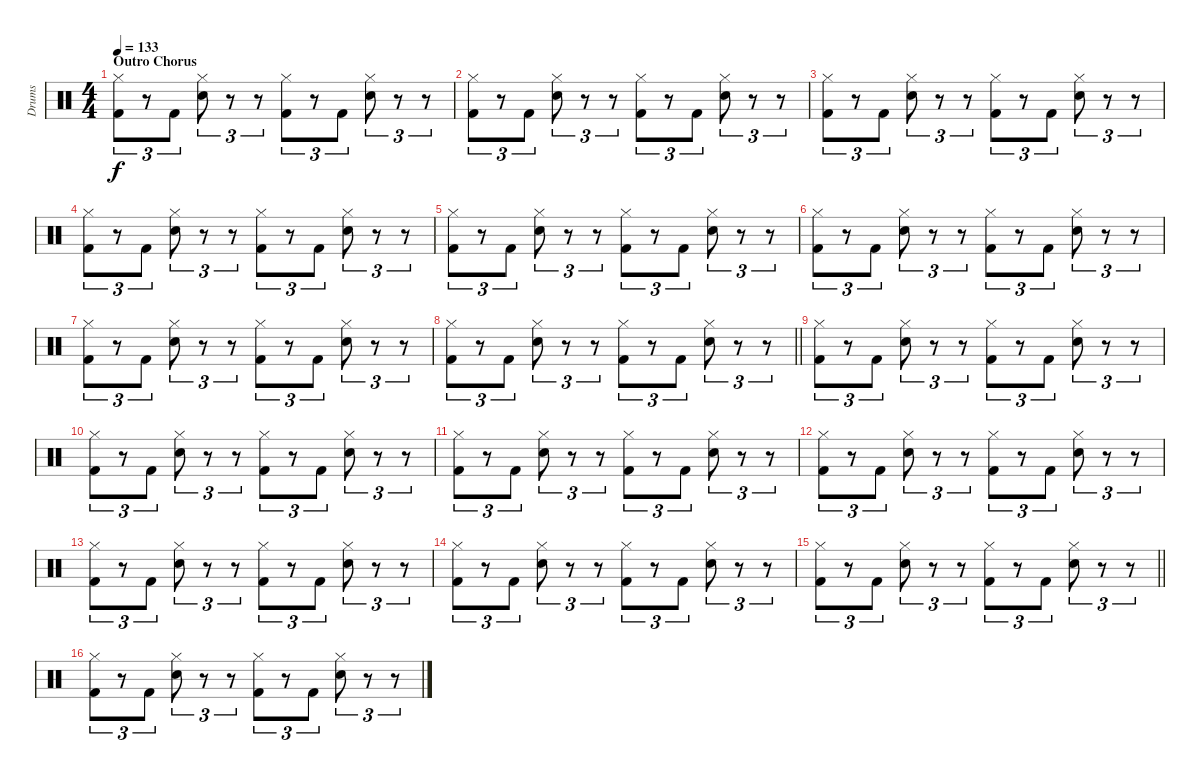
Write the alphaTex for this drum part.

\track ("Drums" "Drums") {instrument percussion}
\staff {score}
\articulation defaults
\ts (4 4)
\section ("" "Outro Chorus")
\tempo 133
\clef neutral
\ks c
("Hi-Hat (closed)" "Kick (hit) 2").8{tu (3 2) dy f} r.8{tu (3 2)} "Kick (hit) 2".8{tu (3 2)} ("Hi-Hat (closed)" "Snare (hit) 2").8{tu (3 2)} r.8{tu (3 2)} r.8{tu (3 2)} ("Hi-Hat (closed)" "Kick (hit) 2").8{tu (3 2)} r.8{tu (3 2)} "Kick (hit) 2".8{tu (3 2)} ("Hi-Hat (closed)" "Snare (hit) 2").8{tu (3 2)} r.8{tu (3 2)} r.8{tu (3 2)} |
("Hi-Hat (closed)" "Kick (hit) 2").8{tu (3 2)} r.8{tu (3 2)} "Kick (hit) 2".8{tu (3 2)} ("Hi-Hat (closed)" "Snare (hit) 2").8{tu (3 2)} r.8{tu (3 2)} r.8{tu (3 2)} ("Hi-Hat (closed)" "Kick (hit) 2").8{tu (3 2)} r.8{tu (3 2)} "Kick (hit) 2".8{tu (3 2)} ("Hi-Hat (closed)" "Snare (hit) 2").8{tu (3 2)} r.8{tu (3 2)} r.8{tu (3 2)} |
("Hi-Hat (closed)" "Kick (hit) 2").8{tu (3 2)} r.8{tu (3 2)} "Kick (hit) 2".8{tu (3 2)} ("Hi-Hat (closed)" "Snare (hit) 2").8{tu (3 2)} r.8{tu (3 2)} r.8{tu (3 2)} ("Hi-Hat (closed)" "Kick (hit) 2").8{tu (3 2)} r.8{tu (3 2)} "Kick (hit) 2".8{tu (3 2)} ("Hi-Hat (closed)" "Snare (hit) 2").8{tu (3 2)} r.8{tu (3 2)} r.8{tu (3 2)} |
("Hi-Hat (closed)" "Kick (hit) 2").8{tu (3 2)} r.8{tu (3 2)} "Kick (hit) 2".8{tu (3 2)} ("Hi-Hat (closed)" "Snare (hit) 2").8{tu (3 2)} r.8{tu (3 2)} r.8{tu (3 2)} ("Hi-Hat (closed)" "Kick (hit) 2").8{tu (3 2)} r.8{tu (3 2)} "Kick (hit) 2".8{tu (3 2)} ("Hi-Hat (closed)" "Snare (hit) 2").8{tu (3 2)} r.8{tu (3 2)} r.8{tu (3 2)} |
("Hi-Hat (closed)" "Kick (hit) 2").8{tu (3 2)} r.8{tu (3 2)} "Kick (hit) 2".8{tu (3 2)} ("Hi-Hat (closed)" "Snare (hit) 2").8{tu (3 2)} r.8{tu (3 2)} r.8{tu (3 2)} ("Hi-Hat (closed)" "Kick (hit) 2").8{tu (3 2)} r.8{tu (3 2)} "Kick (hit) 2".8{tu (3 2)} ("Hi-Hat (closed)" "Snare (hit) 2").8{tu (3 2)} r.8{tu (3 2)} r.8{tu (3 2)} |
("Hi-Hat (closed)" "Kick (hit) 2").8{tu (3 2)} r.8{tu (3 2)} "Kick (hit) 2".8{tu (3 2)} ("Hi-Hat (closed)" "Snare (hit) 2").8{tu (3 2)} r.8{tu (3 2)} r.8{tu (3 2)} ("Hi-Hat (closed)" "Kick (hit) 2").8{tu (3 2)} r.8{tu (3 2)} "Kick (hit) 2".8{tu (3 2)} ("Hi-Hat (closed)" "Snare (hit) 2").8{tu (3 2)} r.8{tu (3 2)} r.8{tu (3 2)} |
("Hi-Hat (closed)" "Kick (hit) 2").8{tu (3 2)} r.8{tu (3 2)} "Kick (hit) 2".8{tu (3 2)} ("Hi-Hat (closed)" "Snare (hit) 2").8{tu (3 2)} r.8{tu (3 2)} r.8{tu (3 2)} ("Hi-Hat (closed)" "Kick (hit) 2").8{tu (3 2)} r.8{tu (3 2)} "Kick (hit) 2".8{tu (3 2)} ("Hi-Hat (closed)" "Snare (hit) 2").8{tu (3 2)} r.8{tu (3 2)} r.8{tu (3 2)} |
\barLineRight lightlight
("Hi-Hat (closed)" "Kick (hit) 2").8{tu (3 2)} r.8{tu (3 2)} "Kick (hit) 2".8{tu (3 2)} ("Hi-Hat (closed)" "Snare (hit) 2").8{tu (3 2)} r.8{tu (3 2)} r.8{tu (3 2)} ("Hi-Hat (closed)" "Kick (hit) 2").8{tu (3 2)} r.8{tu (3 2)} "Kick (hit) 2".8{tu (3 2)} ("Hi-Hat (closed)" "Snare (hit) 2").8{tu (3 2)} r.8{tu (3 2)} r.8{tu (3 2)} |
("Hi-Hat (closed)" "Kick (hit) 2").8{tu (3 2)} r.8{tu (3 2)} "Kick (hit) 2".8{tu (3 2)} ("Hi-Hat (closed)" "Snare (hit) 2").8{tu (3 2)} r.8{tu (3 2)} r.8{tu (3 2)} ("Hi-Hat (closed)" "Kick (hit) 2").8{tu (3 2)} r.8{tu (3 2)} "Kick (hit) 2".8{tu (3 2)} ("Hi-Hat (closed)" "Snare (hit) 2").8{tu (3 2)} r.8{tu (3 2)} r.8{tu (3 2)} |
("Hi-Hat (closed)" "Kick (hit) 2").8{tu (3 2)} r.8{tu (3 2)} "Kick (hit) 2".8{tu (3 2)} ("Hi-Hat (closed)" "Snare (hit) 2").8{tu (3 2)} r.8{tu (3 2)} r.8{tu (3 2)} ("Hi-Hat (closed)" "Kick (hit) 2").8{tu (3 2)} r.8{tu (3 2)} "Kick (hit) 2".8{tu (3 2)} ("Hi-Hat (closed)" "Snare (hit) 2").8{tu (3 2)} r.8{tu (3 2)} r.8{tu (3 2)} |
("Hi-Hat (closed)" "Kick (hit) 2").8{tu (3 2)} r.8{tu (3 2)} "Kick (hit) 2".8{tu (3 2)} ("Hi-Hat (closed)" "Snare (hit) 2").8{tu (3 2)} r.8{tu (3 2)} r.8{tu (3 2)} ("Hi-Hat (closed)" "Kick (hit) 2").8{tu (3 2)} r.8{tu (3 2)} "Kick (hit) 2".8{tu (3 2)} ("Hi-Hat (closed)" "Snare (hit) 2").8{tu (3 2)} r.8{tu (3 2)} r.8{tu (3 2)} |
("Hi-Hat (closed)" "Kick (hit) 2").8{tu (3 2)} r.8{tu (3 2)} "Kick (hit) 2".8{tu (3 2)} ("Hi-Hat (closed)" "Snare (hit) 2").8{tu (3 2)} r.8{tu (3 2)} r.8{tu (3 2)} ("Hi-Hat (closed)" "Kick (hit) 2").8{tu (3 2)} r.8{tu (3 2)} "Kick (hit) 2".8{tu (3 2)} ("Hi-Hat (closed)" "Snare (hit) 2").8{tu (3 2)} r.8{tu (3 2)} r.8{tu (3 2)} |
("Hi-Hat (closed)" "Kick (hit) 2").8{tu (3 2)} r.8{tu (3 2)} "Kick (hit) 2".8{tu (3 2)} ("Hi-Hat (closed)" "Snare (hit) 2").8{tu (3 2)} r.8{tu (3 2)} r.8{tu (3 2)} ("Hi-Hat (closed)" "Kick (hit) 2").8{tu (3 2)} r.8{tu (3 2)} "Kick (hit) 2".8{tu (3 2)} ("Hi-Hat (closed)" "Snare (hit) 2").8{tu (3 2)} r.8{tu (3 2)} r.8{tu (3 2)} |
("Hi-Hat (closed)" "Kick (hit) 2").8{tu (3 2)} r.8{tu (3 2)} "Kick (hit) 2".8{tu (3 2)} ("Hi-Hat (closed)" "Snare (hit) 2").8{tu (3 2)} r.8{tu (3 2)} r.8{tu (3 2)} ("Hi-Hat (closed)" "Kick (hit) 2").8{tu (3 2)} r.8{tu (3 2)} "Kick (hit) 2".8{tu (3 2)} ("Hi-Hat (closed)" "Snare (hit) 2").8{tu (3 2)} r.8{tu (3 2)} r.8{tu (3 2)} |
\barLineRight lightlight
("Hi-Hat (closed)" "Kick (hit) 2").8{tu (3 2)} r.8{tu (3 2)} "Kick (hit) 2".8{tu (3 2)} ("Hi-Hat (closed)" "Snare (hit) 2").8{tu (3 2)} r.8{tu (3 2)} r.8{tu (3 2)} ("Hi-Hat (closed)" "Kick (hit) 2").8{tu (3 2)} r.8{tu (3 2)} "Kick (hit) 2".8{tu (3 2)} ("Hi-Hat (closed)" "Snare (hit) 2").8{tu (3 2)} r.8{tu (3 2)} r.8{tu (3 2)} |
("Hi-Hat (closed)" "Kick (hit) 2").8{tu (3 2)} r.8{tu (3 2)} "Kick (hit) 2".8{tu (3 2)} ("Hi-Hat (closed)" "Snare (hit) 2").8{tu (3 2)} r.8{tu (3 2)} r.8{tu (3 2)} ("Hi-Hat (closed)" "Kick (hit) 2").8{tu (3 2)} r.8{tu (3 2)} "Kick (hit) 2".8{tu (3 2)} ("Hi-Hat (closed)" "Snare (hit) 2").8{tu (3 2)} r.8{tu (3 2)} r.8{tu (3 2)}
